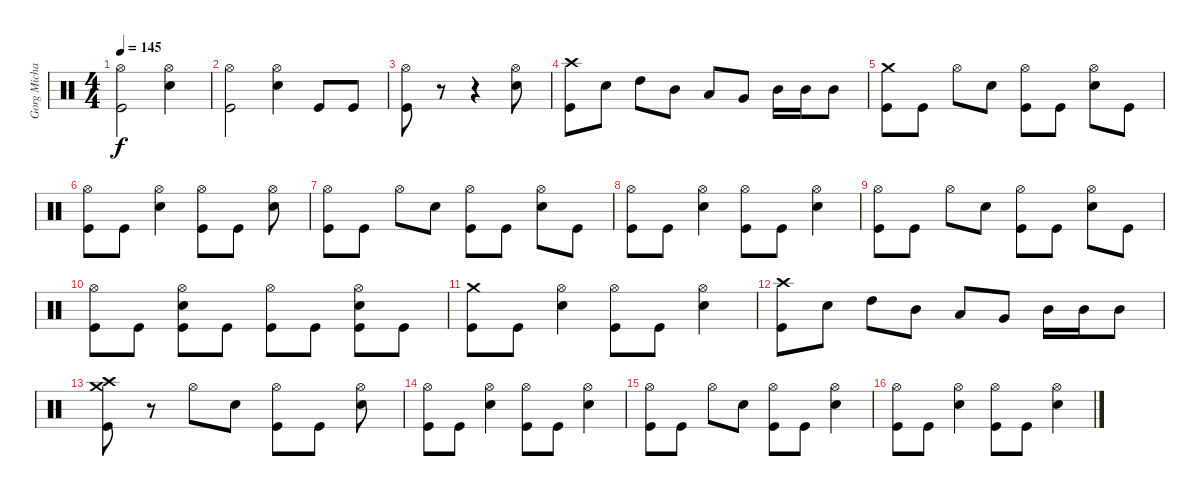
\track ("Gorg Michael" "Gorg Micha") {instrument percussion}
\staff {score}
\articulation defaults
\ts (4 4)
\tempo 145
\clef neutral
\ks c
("Hi-Hat (open)" "Kick (hit)").2{dy f} ("Hi-Hat (open)" "Snare (hit) 2").4 |
("Hi-Hat (open)" "Kick (hit)").2 ("Hi-Hat (open)" "Snare (hit) 2").4 "Kick (hit)".8 "Kick (hit)".8 |
("Hi-Hat (open)" "Kick (hit)").8 r.8 r.4 ("Hi-Hat (open)" "Snare (hit) 2").8 |
("Crash high (hit)" "Kick (hit)").8 "Snare (hit) 2".8 "High Tom (hit)".8 "Mid Tom (hit)".8 "Low Tom (hit)".8 "Very Low Tom (hit)".8 "Mid Tom (hit)".16 "Mid Tom (hit)".16 "Mid Tom (hit)".8 |
("Crash medium (hit)" "Kick (hit)").8 "Kick (hit)".8 "Hi-Hat (open)".8 "Snare (hit) 2".8 ("Hi-Hat (open)" "Kick (hit)").8 "Kick (hit)".8 ("Hi-Hat (open)" "Snare (hit) 2").8 "Kick (hit)".8 |
("Hi-Hat (open)" "Kick (hit)").8 "Kick (hit)".8 ("Hi-Hat (open)" "Snare (hit) 2").4 ("Hi-Hat (open)" "Kick (hit)").8 "Kick (hit)".8 ("Hi-Hat (open)" "Snare (hit) 2").8 |
("Hi-Hat (open)" "Kick (hit)").8 "Kick (hit)".8 "Hi-Hat (open)".8 "Snare (hit) 2".8 ("Hi-Hat (open)" "Kick (hit)").8 "Kick (hit)".8 ("Hi-Hat (open)" "Snare (hit) 2").8 "Kick (hit)".8 |
("Hi-Hat (open)" "Kick (hit)").8 "Kick (hit)".8 ("Hi-Hat (open)" "Snare (hit) 2").4 ("Hi-Hat (open)" "Kick (hit)").8 "Kick (hit)".8 ("Hi-Hat (open)" "Snare (hit) 2").4 |
("Hi-Hat (open)" "Kick (hit)").8 "Kick (hit)".8 "Hi-Hat (open)".8 "Snare (hit) 2".8 ("Hi-Hat (open)" "Kick (hit)").8 "Kick (hit)".8 ("Hi-Hat (open)" "Snare (hit) 2").8 "Kick (hit)".8 |
("Hi-Hat (open)" "Kick (hit)").8 "Kick (hit)".8 ("Hi-Hat (open)" "Snare (hit) 2" "Kick (hit)").8 "Kick (hit)".8 ("Hi-Hat (open)" "Kick (hit)").8 "Kick (hit)".8 ("Hi-Hat (open)" "Snare (hit) 2" "Kick (hit)").8 "Kick (hit)".8 |
("Crash medium (hit)" "Kick (hit)").8 "Kick (hit)".8 ("Hi-Hat (open)" "Snare (hit) 2").4 ("Hi-Hat (open)" "Kick (hit)").8 "Kick (hit)".8 ("Hi-Hat (open)" "Snare (hit) 2").4 |
("Crash high (hit)" "Kick (hit)").8 "Snare (hit) 2".8 "High Tom (hit)".8 "Mid Tom (hit)".8 "Low Tom (hit)".8 "Very Low Tom (hit)".8 "Mid Tom (hit)".16 "Mid Tom (hit)".16 "Mid Tom (hit)".8 |
("Crash high (hit)" "Crash medium (hit)" "Kick (hit)").8 r.8 "Hi-Hat (open)".8 "Snare (hit) 2".8 ("Hi-Hat (open)" "Kick (hit)").8 "Kick (hit)".8 ("Hi-Hat (open)" "Snare (hit) 2").8 |
("Hi-Hat (open)" "Kick (hit)").8 "Kick (hit)".8 ("Hi-Hat (open)" "Snare (hit) 2").4 ("Hi-Hat (open)" "Kick (hit)").8 "Kick (hit)".8 ("Hi-Hat (open)" "Snare (hit) 2").4 |
("Hi-Hat (open)" "Kick (hit)").8 "Kick (hit)".8 "Hi-Hat (open)".8 "Snare (hit) 2".8 ("Hi-Hat (open)" "Kick (hit)").8 "Kick (hit)".8 ("Hi-Hat (open)" "Snare (hit) 2").4 |
("Hi-Hat (open)" "Kick (hit)").8 "Kick (hit)".8 ("Hi-Hat (open)" "Snare (hit) 2").4 ("Hi-Hat (open)" "Kick (hit)").8 "Kick (hit)".8 ("Hi-Hat (open)" "Snare (hit) 2").4
